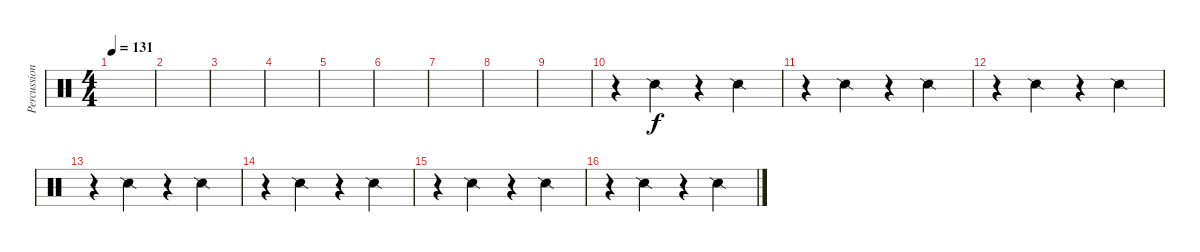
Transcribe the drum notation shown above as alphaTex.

\track ("Percussions" "Percussion") {instrument percussion}
\staff {score}
\articulation defaults
\ts (4 4)
\tempo 131
\clef neutral
\ks c
|
|
|
|
|
|
|
|
|
r.4 "Snare (side stick) 2".4 r.4 "Snare (side stick) 2".4 |
r.4 "Snare (side stick) 2".4 r.4 "Snare (side stick) 2".4 |
r.4 "Snare (side stick) 2".4 r.4 "Snare (side stick) 2".4 |
r.4 "Snare (side stick) 2".4 r.4 "Snare (side stick) 2".4 |
r.4 "Snare (side stick) 2".4 r.4 "Snare (side stick) 2".4 |
r.4 "Snare (side stick) 2".4 r.4 "Snare (side stick) 2".4 |
r.4 "Snare (side stick) 2".4 r.4 "Snare (side stick) 2".4
